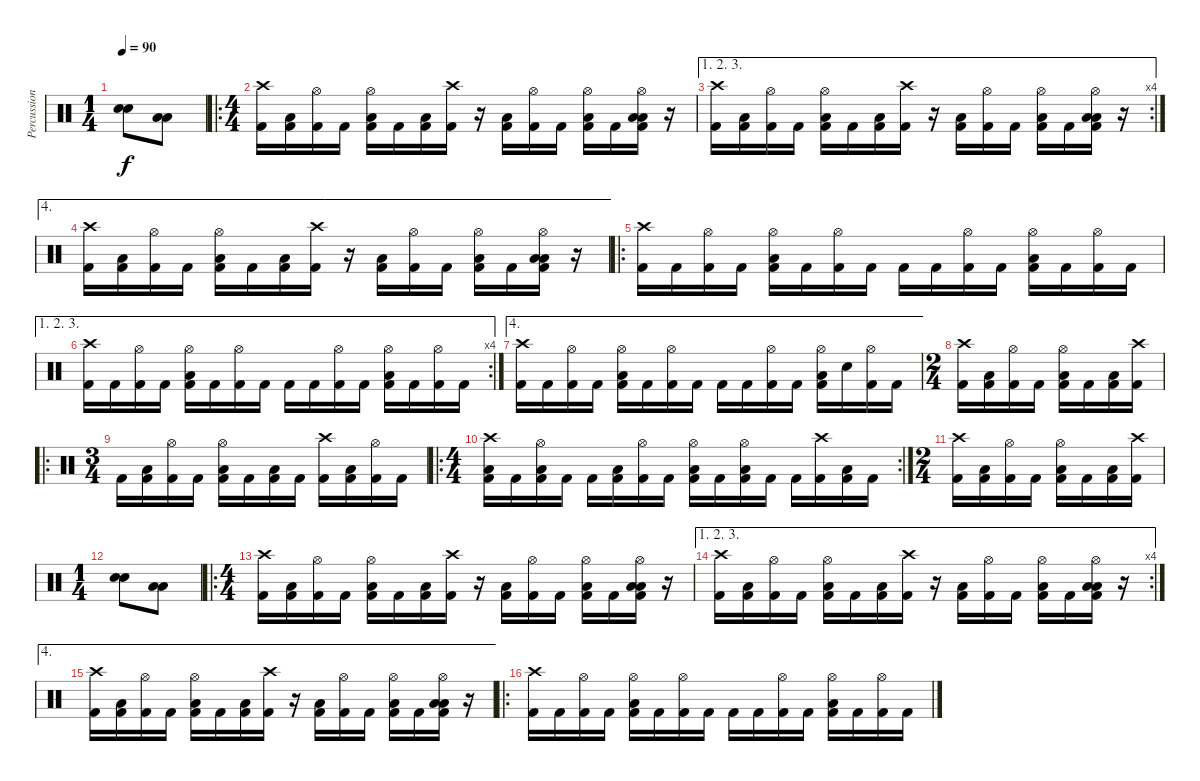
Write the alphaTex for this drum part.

\track ("Percussioni" "Percussion") {instrument percussion}
\staff {score}
\articulation defaults
\ts (1 4)
\tempo 90
\clef neutral
\ks c
("Snare (hit) 2" "Snare (hit) 2").8{dy f} ("Low Floor Tom (hit)" "Low Floor Tom (hit)").8 |
\ro
\ts (4 4)
("Crash high (hit)" "Kick (hit) 2").16 ("Low Floor Tom (hit)" "Kick (hit) 2").16 ("Hi-Hat (open)" "Kick (hit) 2").16 "Kick (hit) 2".16 ("Hi-Hat (open)" "Low Floor Tom (hit)" "Kick (hit) 2").16 "Kick (hit) 2".16 ("Low Floor Tom (hit)" "Kick (hit) 2").16 ("Crash high (hit)" "Kick (hit) 2").16 r.16 ("Low Floor Tom (hit)" "Kick (hit) 2").16 ("Hi-Hat (open)" "Kick (hit) 2").16 "Kick (hit) 2".16 ("Hi-Hat (open)" "Low Floor Tom (hit)" "Kick (hit) 2").16 "Kick (hit) 2".16 ("Hi-Hat (open)" "Low Floor Tom (hit)" "Low Floor Tom (hit)" "Kick (hit) 2").16 r.16 |
\ae (1 2 3)
\rc 4
("Crash high (hit)" "Kick (hit) 2").16 ("Low Floor Tom (hit)" "Kick (hit) 2").16 ("Hi-Hat (open)" "Kick (hit) 2").16 "Kick (hit) 2".16 ("Hi-Hat (open)" "Low Floor Tom (hit)" "Kick (hit) 2").16 "Kick (hit) 2".16 ("Low Floor Tom (hit)" "Kick (hit) 2").16 ("Crash high (hit)" "Kick (hit) 2").16 r.16 ("Low Floor Tom (hit)" "Kick (hit) 2").16 ("Hi-Hat (open)" "Kick (hit) 2").16 "Kick (hit) 2".16 ("Hi-Hat (open)" "Low Floor Tom (hit)" "Kick (hit) 2").16 "Kick (hit) 2".16 ("Hi-Hat (open)" "Low Floor Tom (hit)" "Low Floor Tom (hit)" "Kick (hit) 2").16 r.16 |
\ae 4
("Crash high (hit)" "Kick (hit) 2").16 ("Low Floor Tom (hit)" "Kick (hit) 2").16 ("Hi-Hat (open)" "Kick (hit) 2").16 "Kick (hit) 2".16 ("Hi-Hat (open)" "Low Floor Tom (hit)" "Kick (hit) 2").16 "Kick (hit) 2".16 ("Low Floor Tom (hit)" "Kick (hit) 2").16 ("Crash high (hit)" "Kick (hit) 2").16 r.16 ("Low Floor Tom (hit)" "Kick (hit) 2").16 ("Hi-Hat (open)" "Kick (hit) 2").16 "Kick (hit) 2".16 ("Hi-Hat (open)" "Low Floor Tom (hit)" "Kick (hit) 2").16 "Kick (hit) 2".16 ("Hi-Hat (open)" "Low Floor Tom (hit)" "Low Floor Tom (hit)" "Kick (hit) 2").16 r.16 |
\ro
("Crash high (hit)" "Kick (hit) 2").16 "Kick (hit) 2".16 ("Hi-Hat (open)" "Kick (hit) 2").16 "Kick (hit) 2".16 ("Hi-Hat (open)" "Low Floor Tom (hit)" "Kick (hit) 2").16 "Kick (hit) 2".16 ("Hi-Hat (open)" "Kick (hit) 2").16 "Kick (hit) 2".16 "Kick (hit) 2".16 "Kick (hit) 2".16 ("Hi-Hat (open)" "Kick (hit) 2").16 "Kick (hit) 2".16 ("Hi-Hat (open)" "Low Floor Tom (hit)" "Kick (hit) 2").16 "Kick (hit) 2".16 ("Hi-Hat (open)" "Kick (hit) 2").16 "Kick (hit) 2".16 |
\ae (1 2 3)
\rc 4
("Crash high (hit)" "Kick (hit) 2").16 "Kick (hit) 2".16 ("Hi-Hat (open)" "Kick (hit) 2").16 "Kick (hit) 2".16 ("Hi-Hat (open)" "Low Floor Tom (hit)" "Kick (hit) 2").16 "Kick (hit) 2".16 ("Hi-Hat (open)" "Kick (hit) 2").16 "Kick (hit) 2".16 "Kick (hit) 2".16 "Kick (hit) 2".16 ("Hi-Hat (open)" "Kick (hit) 2").16 "Kick (hit) 2".16 ("Hi-Hat (open)" "Low Floor Tom (hit)" "Kick (hit) 2").16 "Kick (hit) 2".16 ("Hi-Hat (open)" "Kick (hit) 2").16 "Kick (hit) 2".16 |
\ae 4
("Crash high (hit)" "Kick (hit) 2").16 "Kick (hit) 2".16 ("Hi-Hat (open)" "Kick (hit) 2").16 "Kick (hit) 2".16 ("Hi-Hat (open)" "Low Floor Tom (hit)" "Kick (hit) 2").16 "Kick (hit) 2".16 ("Hi-Hat (open)" "Kick (hit) 2").16 "Kick (hit) 2".16 "Kick (hit) 2".16 "Kick (hit) 2".16 ("Hi-Hat (open)" "Kick (hit) 2").16 "Kick (hit) 2".16 ("Hi-Hat (open)" "Low Floor Tom (hit)" "Kick (hit) 2").16 "Snare (hit)".16 ("Hi-Hat (open)" "Kick (hit) 2").16 "Kick (hit) 2".16 |
\ts (2 4)
("Crash high (hit)" "Kick (hit) 2").16 ("Low Floor Tom (hit)" "Kick (hit) 2").16 ("Hi-Hat (open)" "Kick (hit) 2").16 "Kick (hit) 2".16 ("Hi-Hat (open)" "Low Floor Tom (hit)" "Kick (hit) 2").16 "Kick (hit) 2".16 ("Low Floor Tom (hit)" "Kick (hit) 2").16 ("Crash high (hit)" "Kick (hit) 2").16 |
\ro
\ts (3 4)
"Kick (hit) 2".16 ("Low Floor Tom (hit)" "Kick (hit) 2").16 ("Hi-Hat (open)" "Kick (hit) 2").16 "Kick (hit) 2".16 ("Hi-Hat (open)" "Low Floor Tom (hit)" "Kick (hit) 2").16 "Kick (hit) 2".16 ("Low Floor Tom (hit)" "Kick (hit) 2").16 "Kick (hit) 2".16 ("Crash high (hit)" "Kick (hit) 2").16 ("Low Floor Tom (hit)" "Kick (hit) 2").16 ("Hi-Hat (open)" "Kick (hit) 2").16 "Kick (hit) 2".16 |
\ro
\rc 2
\ts (4 4)
("Crash high (hit)" "Low Floor Tom (hit)" "Kick (hit) 2").16 "Kick (hit) 2".16 ("Hi-Hat (open)" "Low Floor Tom (hit)" "Kick (hit) 2").16 "Kick (hit) 2".16 "Kick (hit) 2".16 ("Low Floor Tom (hit)" "Kick (hit) 2").16 ("Hi-Hat (open)" "Kick (hit) 2").16 "Kick (hit) 2".16 ("Hi-Hat (open)" "Low Floor Tom (hit)" "Kick (hit) 2").16 "Kick (hit) 2".16 ("Hi-Hat (open)" "Low Floor Tom (hit)" "Kick (hit) 2").16 "Kick (hit) 2".16 "Kick (hit) 2".16 ("Crash high (hit)" "Kick (hit) 2").16 ("Low Floor Tom (hit)" "Kick (hit) 2").16 "Kick (hit) 2".16 |
\ts (2 4)
("Crash high (hit)" "Kick (hit) 2").16 ("Low Floor Tom (hit)" "Kick (hit) 2").16 ("Hi-Hat (open)" "Kick (hit) 2").16 "Kick (hit) 2".16 ("Hi-Hat (open)" "Low Floor Tom (hit)" "Kick (hit) 2").16 "Kick (hit) 2".16 ("Low Floor Tom (hit)" "Kick (hit) 2").16 ("Crash high (hit)" "Kick (hit) 2").16 |
\ts (1 4)
("Snare (hit) 2" "Snare (hit) 2").8 ("Low Floor Tom (hit)" "Low Floor Tom (hit)").8 |
\ro
\ts (4 4)
("Crash high (hit)" "Kick (hit) 2").16 ("Low Floor Tom (hit)" "Kick (hit) 2").16 ("Hi-Hat (open)" "Kick (hit) 2").16 "Kick (hit) 2".16 ("Hi-Hat (open)" "Low Floor Tom (hit)" "Kick (hit) 2").16 "Kick (hit) 2".16 ("Low Floor Tom (hit)" "Kick (hit) 2").16 ("Crash high (hit)" "Kick (hit) 2").16 r.16 ("Low Floor Tom (hit)" "Kick (hit) 2").16 ("Hi-Hat (open)" "Kick (hit) 2").16 "Kick (hit) 2".16 ("Hi-Hat (open)" "Low Floor Tom (hit)" "Kick (hit) 2").16 "Kick (hit) 2".16 ("Hi-Hat (open)" "Low Floor Tom (hit)" "Low Floor Tom (hit)" "Kick (hit) 2").16 r.16 |
\ae (1 2 3)
\rc 4
("Crash high (hit)" "Kick (hit) 2").16 ("Low Floor Tom (hit)" "Kick (hit) 2").16 ("Hi-Hat (open)" "Kick (hit) 2").16 "Kick (hit) 2".16 ("Hi-Hat (open)" "Low Floor Tom (hit)" "Kick (hit) 2").16 "Kick (hit) 2".16 ("Low Floor Tom (hit)" "Kick (hit) 2").16 ("Crash high (hit)" "Kick (hit) 2").16 r.16 ("Low Floor Tom (hit)" "Kick (hit) 2").16 ("Hi-Hat (open)" "Kick (hit) 2").16 "Kick (hit) 2".16 ("Hi-Hat (open)" "Low Floor Tom (hit)" "Kick (hit) 2").16 "Kick (hit) 2".16 ("Hi-Hat (open)" "Low Floor Tom (hit)" "Low Floor Tom (hit)" "Kick (hit) 2").16 r.16 |
\ae 4
("Crash high (hit)" "Kick (hit) 2").16 ("Low Floor Tom (hit)" "Kick (hit) 2").16 ("Hi-Hat (open)" "Kick (hit) 2").16 "Kick (hit) 2".16 ("Hi-Hat (open)" "Low Floor Tom (hit)" "Kick (hit) 2").16 "Kick (hit) 2".16 ("Low Floor Tom (hit)" "Kick (hit) 2").16 ("Crash high (hit)" "Kick (hit) 2").16 r.16 ("Low Floor Tom (hit)" "Kick (hit) 2").16 ("Hi-Hat (open)" "Kick (hit) 2").16 "Kick (hit) 2".16 ("Hi-Hat (open)" "Low Floor Tom (hit)" "Kick (hit) 2").16 "Kick (hit) 2".16 ("Hi-Hat (open)" "Low Floor Tom (hit)" "Low Floor Tom (hit)" "Kick (hit) 2").16 r.16 |
\ro
("Crash high (hit)" "Kick (hit) 2").16 "Kick (hit) 2".16 ("Hi-Hat (open)" "Kick (hit) 2").16 "Kick (hit) 2".16 ("Hi-Hat (open)" "Low Floor Tom (hit)" "Kick (hit) 2").16 "Kick (hit) 2".16 ("Hi-Hat (open)" "Kick (hit) 2").16 "Kick (hit) 2".16 "Kick (hit) 2".16 "Kick (hit) 2".16 ("Hi-Hat (open)" "Kick (hit) 2").16 "Kick (hit) 2".16 ("Hi-Hat (open)" "Low Floor Tom (hit)" "Kick (hit) 2").16 "Kick (hit) 2".16 ("Hi-Hat (open)" "Kick (hit) 2").16 "Kick (hit) 2".16
